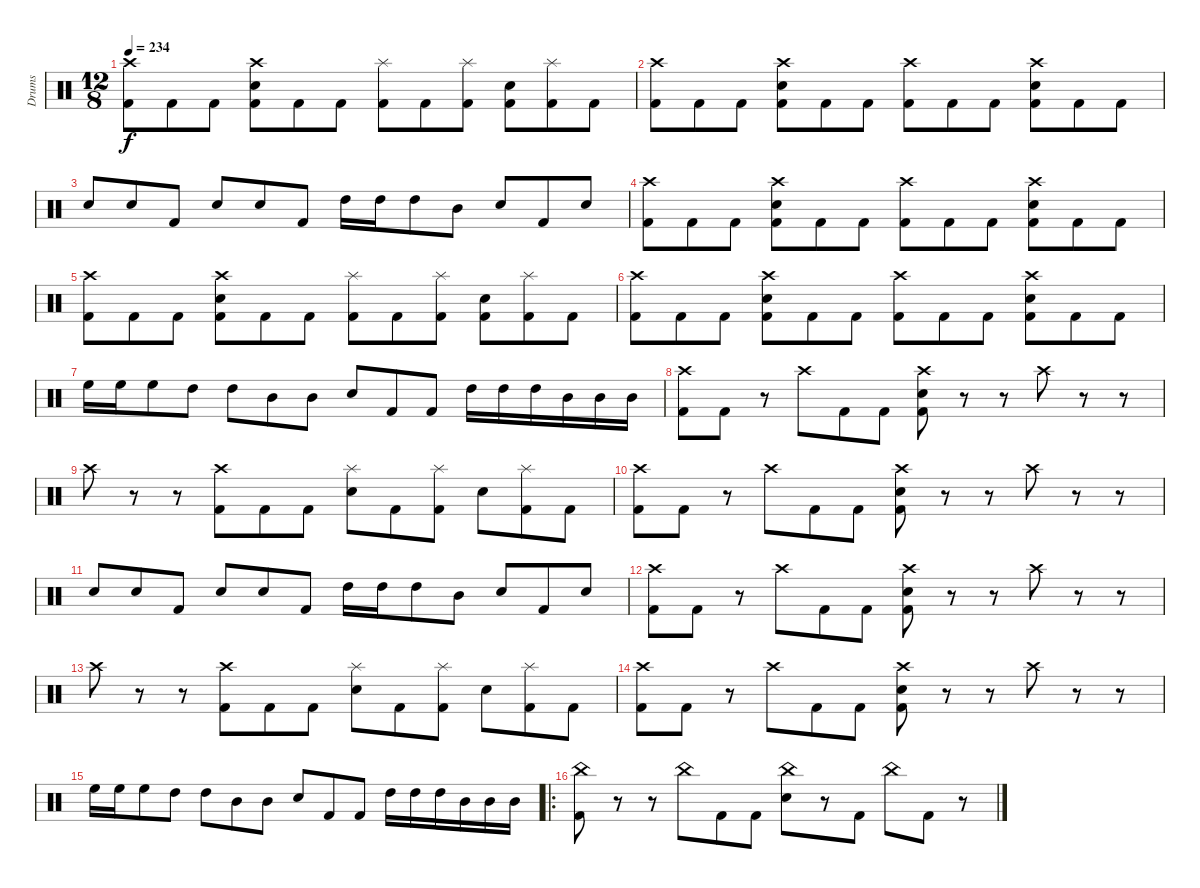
\track ("Drums" "Drums") {instrument percussion}
\staff {score}
\articulation defaults
\ts (12 8)
\tempo 234
\clef neutral
\ks c
("Crash high (hit)" "Kick (hit) 2").8{dy f} "Kick (hit) 2".8 "Kick (hit) 2".8 ("Crash high (hit)" "Electric Snare (hit)" "Kick (hit) 2").8 "Kick (hit) 2".8 "Kick (hit) 2".8 ("Splash (hit)" "Kick (hit) 2").8 "Kick (hit) 2".8 ("Splash (hit)" "Kick (hit) 2").8 ("Electric Snare (hit)" "Kick (hit) 2").8 ("Splash (hit)" "Kick (hit) 2").8 "Kick (hit) 2".8 |
("Crash high (hit)" "Kick (hit) 2").8 "Kick (hit) 2".8 "Kick (hit) 2".8 ("Crash high (hit)" "Electric Snare (hit)" "Kick (hit) 2").8 "Kick (hit) 2".8 "Kick (hit) 2".8 ("Crash high (hit)" "Kick (hit) 2").8 "Kick (hit) 2".8 "Kick (hit) 2".8 ("Crash high (hit)" "Electric Snare (hit)" "Kick (hit) 2").8 "Kick (hit) 2".8 "Kick (hit) 2".8 |
"Electric Snare (hit)".8 "Electric Snare (hit)".8 "Kick (hit) 2".8 "Electric Snare (hit)".8 "Electric Snare (hit)".8 "Kick (hit) 2".8 "High Tom (hit)".16 "High Tom (hit)".16 "High Tom (hit)".8 "Mid Tom (hit)".8 "Electric Snare (hit)".8 "Kick (hit) 2".8 "Electric Snare (hit)".8 |
("Crash high (hit)" "Kick (hit) 2").8 "Kick (hit) 2".8 "Kick (hit) 2".8 ("Crash high (hit)" "Electric Snare (hit)" "Kick (hit) 2").8 "Kick (hit) 2".8 "Kick (hit) 2".8 ("Crash high (hit)" "Kick (hit) 2").8 "Kick (hit) 2".8 "Kick (hit) 2".8 ("Crash high (hit)" "Electric Snare (hit)" "Kick (hit) 2").8 "Kick (hit) 2".8 "Kick (hit) 2".8 |
("Crash high (hit)" "Kick (hit) 2").8 "Kick (hit) 2".8 "Kick (hit) 2".8 ("Crash high (hit)" "Electric Snare (hit)" "Kick (hit) 2").8 "Kick (hit) 2".8 "Kick (hit) 2".8 ("Splash (hit)" "Kick (hit) 2").8 "Kick (hit) 2".8 ("Splash (hit)" "Kick (hit) 2").8 ("Electric Snare (hit)" "Kick (hit) 2").8 ("Splash (hit)" "Kick (hit) 2").8 "Kick (hit) 2".8 |
("Crash high (hit)" "Kick (hit) 2").8 "Kick (hit) 2".8 "Kick (hit) 2".8 ("Crash high (hit)" "Electric Snare (hit)" "Kick (hit) 2").8 "Kick (hit) 2".8 "Kick (hit) 2".8 ("Crash high (hit)" "Kick (hit) 2").8 "Kick (hit) 2".8 "Kick (hit) 2".8 ("Crash high (hit)" "Electric Snare (hit)" "Kick (hit) 2").8 "Kick (hit) 2".8 "Kick (hit) 2".8 |
"High Floor Tom (hit)".16 "High Floor Tom (hit)".16 "High Floor Tom (hit)".8 "High Tom (hit)".8 "High Tom (hit)".8 "Mid Tom (hit)".8 "Mid Tom (hit)".8 "Electric Snare (hit)".8 "Kick (hit) 2".8 "Kick (hit) 2".8 "High Tom (hit)".16 "High Tom (hit)".16 "High Tom (hit)".16 "Mid Tom (hit)".16 "Mid Tom (hit)".16 "Mid Tom (hit)".16 |
("Crash high (hit)" "Kick (hit) 2").8 "Kick (hit) 2".8 r.8 "Crash high (hit)".8 "Kick (hit) 2".8 "Kick (hit) 2".8 ("Crash high (hit)" "Electric Snare (hit)" "Kick (hit) 2").8 r.8 r.8 "Crash high (hit)".8 r.8 r.8 |
"Crash high (hit)".8 r.8 r.8 ("Crash high (hit)" "Kick (hit) 2").8 "Kick (hit) 2".8 "Kick (hit) 2".8 ("Splash (hit)" "Electric Snare (hit)").8 "Kick (hit) 2".8 ("Splash (hit)" "Kick (hit) 2").8 "Electric Snare (hit)".8 ("Splash (hit)" "Kick (hit) 2").8 "Kick (hit) 2".8 |
("Crash high (hit)" "Kick (hit) 2").8 "Kick (hit) 2".8 r.8 "Crash high (hit)".8 "Kick (hit) 2".8 "Kick (hit) 2".8 ("Crash high (hit)" "Electric Snare (hit)" "Kick (hit) 2").8 r.8 r.8 "Crash high (hit)".8 r.8 r.8 |
"Electric Snare (hit)".8 "Electric Snare (hit)".8 "Kick (hit) 2".8 "Electric Snare (hit)".8 "Electric Snare (hit)".8 "Kick (hit) 2".8 "High Tom (hit)".16 "High Tom (hit)".16 "High Tom (hit)".8 "Mid Tom (hit)".8 "Electric Snare (hit)".8 "Kick (hit) 2".8 "Electric Snare (hit)".8 |
("Crash high (hit)" "Kick (hit) 2").8 "Kick (hit) 2".8 r.8 "Crash high (hit)".8 "Kick (hit) 2".8 "Kick (hit) 2".8 ("Crash high (hit)" "Electric Snare (hit)" "Kick (hit) 2").8 r.8 r.8 "Crash high (hit)".8 r.8 r.8 |
"Crash high (hit)".8 r.8 r.8 ("Crash high (hit)" "Kick (hit) 2").8 "Kick (hit) 2".8 "Kick (hit) 2".8 ("Splash (hit)" "Electric Snare (hit)").8 "Kick (hit) 2".8 ("Splash (hit)" "Kick (hit) 2").8 "Electric Snare (hit)".8 ("Splash (hit)" "Kick (hit) 2").8 "Kick (hit) 2".8 |
("Crash high (hit)" "Kick (hit) 2").8 "Kick (hit) 2".8 r.8 "Crash high (hit)".8 "Kick (hit) 2".8 "Kick (hit) 2".8 ("Crash high (hit)" "Electric Snare (hit)" "Kick (hit) 2").8 r.8 r.8 "Crash high (hit)".8 r.8 r.8 |
"High Floor Tom (hit)".16 "High Floor Tom (hit)".16 "High Floor Tom (hit)".8 "High Tom (hit)".8 "High Tom (hit)".8 "Mid Tom (hit)".8 "Mid Tom (hit)".8 "Electric Snare (hit)".8 "Kick (hit) 2".8 "Kick (hit) 2".8 "High Tom (hit)".16 "High Tom (hit)".16 "High Tom (hit)".16 "Mid Tom (hit)".16 "Mid Tom (hit)".16 "Mid Tom (hit)".16 |
\ro
("China (hit)" "Kick (hit) 2").8 r.8 r.8 "China (hit)".8 "Kick (hit) 2".8 "Kick (hit) 2".8 ("China (hit)" "Electric Snare (hit)").8 r.8 "Kick (hit) 2".8 "China (hit)".8 "Kick (hit) 2".8 r.8
